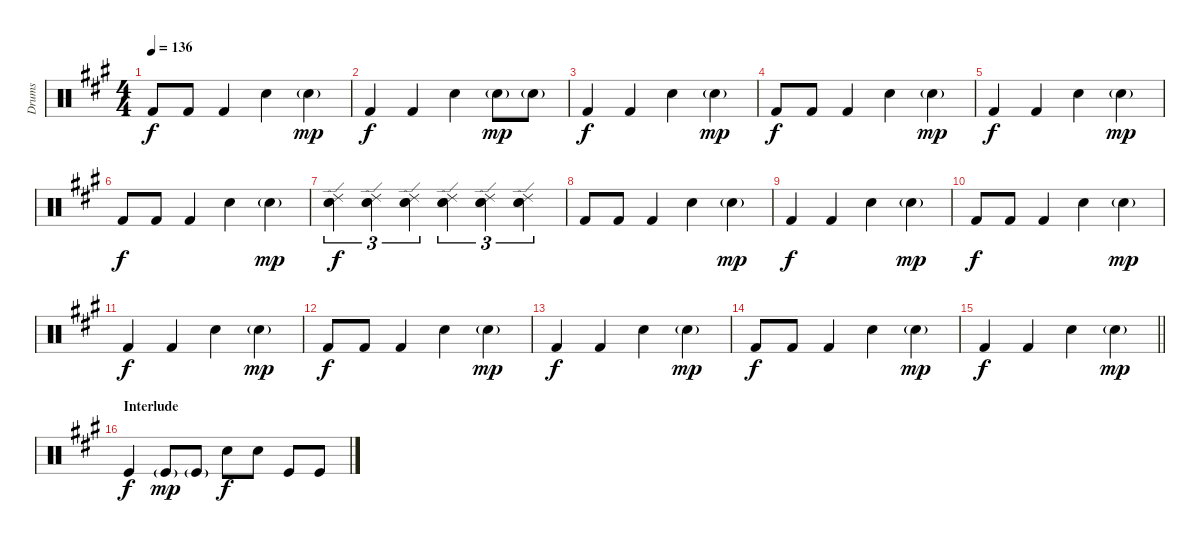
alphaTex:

\track ("Drums" "Drums") {instrument percussion}
\staff {score}
\articulation defaults
\ts (4 4)
\tempo 136
\clef neutral
\ks a "Kick (hit) 2".8{dy f} "Kick (hit) 2".8 "Kick (hit) 2".4 "Snare (hit) 2".4 "Snare (hit) 2"{g}.4{dy mp}
|
"Kick (hit) 2".4{dy f} "Kick (hit) 2".4 "Snare (hit) 2".4 "Snare (hit) 2"{g}.8{dy mp} "Snare (hit) 2"{g}.8 |
"Kick (hit) 2".4{dy f} "Kick (hit) 2".4 "Snare (hit) 2".4 "Snare (hit) 2"{g}.4{dy mp} |
"Kick (hit) 2".8{dy f} "Kick (hit) 2".8 "Kick (hit) 2".4 "Snare (hit) 2".4 "Snare (hit) 2"{g}.4{dy mp} |
"Kick (hit) 2".4{dy f} "Kick (hit) 2".4 "Snare (hit) 2".4 "Snare (hit) 2"{g}.4{dy mp} |
"Kick (hit) 2".8{dy f} "Kick (hit) 2".8 "Kick (hit) 2".4 "Snare (hit) 2".4 "Snare (hit) 2"{g}.4{dy mp} |
("Ride (edge) 2" "Snare (hit) 2" "Electric Snare (hit)").4{tu (3 2) dy f} ("Ride (edge) 2" "Snare (hit) 2" "Electric Snare (hit)").4{tu (3 2)} ("Ride (edge) 2" "Snare (hit) 2" "Electric Snare (hit)").4{tu (3 2)} ("Ride (edge) 2" "Snare (hit) 2" "Electric Snare (hit)").4{tu (3 2)} ("Ride (edge) 2" "Snare (hit) 2" "Electric Snare (hit)").4{tu (3 2)} ("Ride (edge) 2" "Snare (hit) 2" "Electric Snare (hit)").4{tu (3 2)} |
"Kick (hit) 2".8 "Kick (hit) 2".8 "Kick (hit) 2".4 "Snare (hit) 2".4 "Snare (hit) 2"{g}.4{dy mp} |
"Kick (hit) 2".4{dy f} "Kick (hit) 2".4 "Snare (hit) 2".4 "Snare (hit) 2"{g}.4{dy mp} |
"Kick (hit) 2".8{dy f} "Kick (hit) 2".8 "Kick (hit) 2".4 "Snare (hit) 2".4 "Snare (hit) 2"{g}.4{dy mp} |
"Kick (hit) 2".4{dy f} "Kick (hit) 2".4 "Snare (hit) 2".4 "Snare (hit) 2"{g}.4{dy mp} |
"Kick (hit) 2".8{dy f} "Kick (hit) 2".8 "Kick (hit) 2".4 "Snare (hit) 2".4 "Snare (hit) 2"{g}.4{dy mp} |
"Kick (hit) 2".4{dy f} "Kick (hit) 2".4 "Snare (hit) 2".4 "Snare (hit) 2"{g}.4{dy mp} |
"Kick (hit) 2".8{dy f} "Kick (hit) 2".8 "Kick (hit) 2".4 "Snare (hit) 2".4 "Snare (hit) 2"{g}.4{dy mp} |
\barLineRight lightlight "Kick (hit) 2".4{dy f} "Kick (hit) 2".4 "Snare (hit) 2".4 "Snare (hit) 2"{g}.4{dy mp}
|
\section ("" "Interlude")
"Kick (hit)".4{dy f} "Kick (hit)"{g}.8{dy mp} "Kick (hit)"{g}.8 "Electric Snare (hit)".8{dy f} "Electric Snare (hit)".8 "Kick (hit)".8 "Kick (hit)".8
